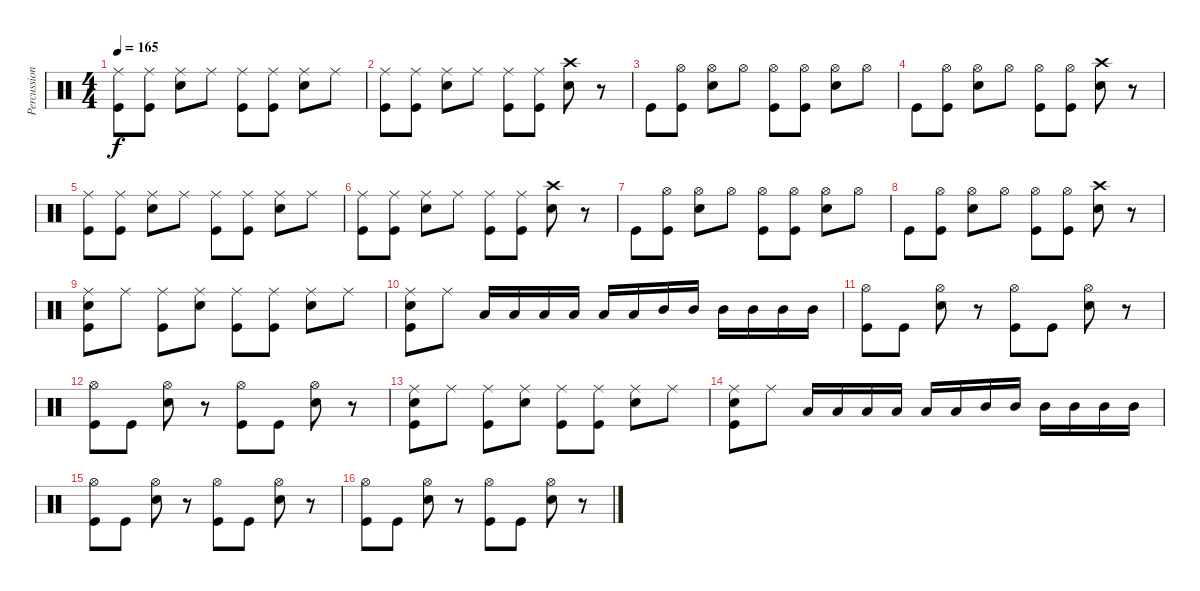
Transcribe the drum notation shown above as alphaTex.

\track ("Percussion" "Percussion") {instrument percussion}
\staff {score}
\articulation defaults
\ts (4 4)
\tempo 165
\clef neutral
\ks c
("Ride (middle)" "Kick (hit)").8{dy f} ("Ride (middle)" "Kick (hit)").8 ("Ride (middle)" "Snare (hit) 2").8 "Ride (middle)".8 ("Ride (middle)" "Kick (hit)").8 ("Ride (middle)" "Kick (hit)").8 ("Ride (middle)" "Snare (hit) 2").8 "Ride (middle)".8 |
("Ride (middle)" "Kick (hit)").8 ("Ride (middle)" "Kick (hit)").8 ("Ride (middle)" "Snare (hit) 2").8 "Ride (middle)".8 ("Ride (middle)" "Kick (hit)").8 ("Ride (middle)" "Kick (hit)").8 ("Crash high (hit)" "Snare (hit) 2").8 r.8 |
"Kick (hit)".8 ("Hi-Hat (open)" "Kick (hit)").8 ("Hi-Hat (open)" "Snare (hit) 2").8 "Hi-Hat (open)".8 ("Hi-Hat (open)" "Kick (hit)").8 ("Hi-Hat (open)" "Kick (hit)").8 ("Hi-Hat (open)" "Snare (hit) 2").8 "Hi-Hat (open)".8 |
"Kick (hit)".8 ("Hi-Hat (open)" "Kick (hit)").8 ("Hi-Hat (open)" "Snare (hit) 2").8 "Hi-Hat (open)".8 ("Hi-Hat (open)" "Kick (hit)").8 ("Hi-Hat (open)" "Kick (hit)").8 ("Crash high (hit)" "Snare (hit) 2").8 r.8 |
("Ride (middle)" "Kick (hit)").8 ("Ride (middle)" "Kick (hit)").8 ("Ride (middle)" "Snare (hit) 2").8 "Ride (middle)".8 ("Ride (middle)" "Kick (hit)").8 ("Ride (middle)" "Kick (hit)").8 ("Ride (middle)" "Snare (hit) 2").8 "Ride (middle)".8 |
("Ride (middle)" "Kick (hit)").8 ("Ride (middle)" "Kick (hit)").8 ("Ride (middle)" "Snare (hit) 2").8 "Ride (middle)".8 ("Ride (middle)" "Kick (hit)").8 ("Ride (middle)" "Kick (hit)").8 ("Crash high (hit)" "Snare (hit) 2").8 r.8 |
"Kick (hit)".8 ("Hi-Hat (open)" "Kick (hit)").8 ("Hi-Hat (open)" "Snare (hit) 2").8 "Hi-Hat (open)".8 ("Hi-Hat (open)" "Kick (hit)").8 ("Hi-Hat (open)" "Kick (hit)").8 ("Hi-Hat (open)" "Snare (hit) 2").8 "Hi-Hat (open)".8 |
"Kick (hit)".8 ("Hi-Hat (open)" "Kick (hit)").8 ("Hi-Hat (open)" "Snare (hit) 2").8 "Hi-Hat (open)".8 ("Hi-Hat (open)" "Kick (hit)").8 ("Hi-Hat (open)" "Kick (hit)").8 ("Crash high (hit)" "Snare (hit) 2").8 r.8 |
("Ride (middle)" "Snare (hit) 2" "Kick (hit)").8 "Ride (middle)".8 ("Ride (middle)" "Kick (hit)").8 ("Ride (middle)" "Snare (hit) 2").8 ("Ride (middle)" "Kick (hit)").8 ("Ride (middle)" "Kick (hit)").8 ("Ride (middle)" "Snare (hit) 2").8 "Ride (middle)".8 |
("Ride (middle)" "Snare (hit) 2" "Kick (hit)").8 "Ride (middle)".8 "Low Tom (hit)".16 "Low Tom (hit)".16 "Low Tom (hit)".16 "Low Tom (hit)".16 "Low Tom (hit)".16 "Low Tom (hit)".16 "Mid Tom (hit)".16 "Mid Tom (hit)".16 "Mid Tom (hit)".16 "Mid Tom (hit)".16 "Mid Tom (hit)".16 "Mid Tom (hit)".16 |
("Hi-Hat (open)" "Kick (hit)").8 "Kick (hit)".8 ("Hi-Hat (open)" "Snare (hit) 2").8 r.8 ("Hi-Hat (open)" "Kick (hit)").8 "Kick (hit)".8 ("Hi-Hat (open)" "Snare (hit) 2").8 r.8 |
("Hi-Hat (open)" "Kick (hit)").8 "Kick (hit)".8 ("Hi-Hat (open)" "Snare (hit) 2").8 r.8 ("Hi-Hat (open)" "Kick (hit)").8 "Kick (hit)".8 ("Hi-Hat (open)" "Snare (hit) 2").8 r.8 |
("Ride (middle)" "Snare (hit) 2" "Kick (hit)").8 "Ride (middle)".8 ("Ride (middle)" "Kick (hit)").8 ("Ride (middle)" "Snare (hit) 2").8 ("Ride (middle)" "Kick (hit)").8 ("Ride (middle)" "Kick (hit)").8 ("Ride (middle)" "Snare (hit) 2").8 "Ride (middle)".8 |
("Ride (middle)" "Snare (hit) 2" "Kick (hit)").8 "Ride (middle)".8 "Low Tom (hit)".16 "Low Tom (hit)".16 "Low Tom (hit)".16 "Low Tom (hit)".16 "Low Tom (hit)".16 "Low Tom (hit)".16 "Mid Tom (hit)".16 "Mid Tom (hit)".16 "Mid Tom (hit)".16 "Mid Tom (hit)".16 "Mid Tom (hit)".16 "Mid Tom (hit)".16 |
("Hi-Hat (open)" "Kick (hit)").8 "Kick (hit)".8 ("Hi-Hat (open)" "Snare (hit) 2").8 r.8 ("Hi-Hat (open)" "Kick (hit)").8 "Kick (hit)".8 ("Hi-Hat (open)" "Snare (hit) 2").8 r.8 |
("Hi-Hat (open)" "Kick (hit)").8 "Kick (hit)".8 ("Hi-Hat (open)" "Snare (hit) 2").8 r.8 ("Hi-Hat (open)" "Kick (hit)").8 "Kick (hit)".8 ("Hi-Hat (open)" "Snare (hit) 2").8 r.8
